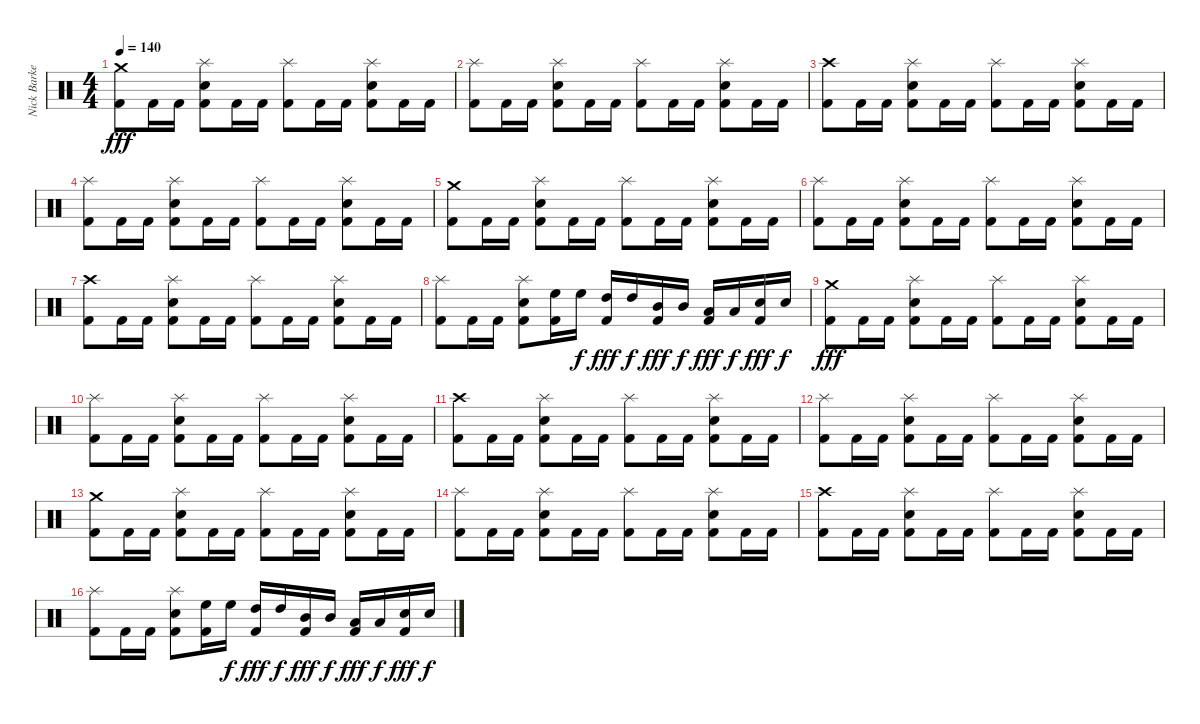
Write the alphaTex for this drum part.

\track ("Nick Barker - Drums - Percussion" "Nick Barke") {instrument percussion}
\staff {score}
\articulation defaults
\ts (4 4)
\tempo 140
\clef neutral
\ks c
("Kick (hit) 2" "Crash medium (hit)").8{dy fff} "Kick (hit) 2".16 "Kick (hit) 2".16 ("Kick (hit) 2" "Snare (hit) 2" "Splash (hit)").8 "Kick (hit) 2".16 "Kick (hit) 2".16 ("Kick (hit) 2" "Splash (hit)").8 "Kick (hit) 2".16 "Kick (hit) 2".16 ("Kick (hit) 2" "Snare (hit) 2" "Splash (hit)").8 "Kick (hit) 2".16 "Kick (hit) 2".16 |
("Kick (hit) 2" "Splash (hit)").8 "Kick (hit) 2".16 "Kick (hit) 2".16 ("Kick (hit) 2" "Snare (hit) 2" "Splash (hit)").8 "Kick (hit) 2".16 "Kick (hit) 2".16 ("Kick (hit) 2" "Splash (hit)").8 "Kick (hit) 2".16 "Kick (hit) 2".16 ("Kick (hit) 2" "Snare (hit) 2" "Splash (hit)").8 "Kick (hit) 2".16 "Kick (hit) 2".16 |
("Kick (hit) 2" "Crash high (hit)").8 "Kick (hit) 2".16 "Kick (hit) 2".16 ("Kick (hit) 2" "Snare (hit) 2" "Splash (hit)").8 "Kick (hit) 2".16 "Kick (hit) 2".16 ("Kick (hit) 2" "Splash (hit)").8 "Kick (hit) 2".16 "Kick (hit) 2".16 ("Kick (hit) 2" "Snare (hit) 2" "Splash (hit)").8 "Kick (hit) 2".16 "Kick (hit) 2".16 |
("Kick (hit) 2" "Splash (hit)").8 "Kick (hit) 2".16 "Kick (hit) 2".16 ("Kick (hit) 2" "Snare (hit) 2" "Splash (hit)").8 "Kick (hit) 2".16 "Kick (hit) 2".16 ("Kick (hit) 2" "Splash (hit)").8 "Kick (hit) 2".16 "Kick (hit) 2".16 ("Kick (hit) 2" "Snare (hit) 2" "Splash (hit)").8 "Kick (hit) 2".16 "Kick (hit) 2".16 |
("Kick (hit) 2" "Crash medium (hit)").8 "Kick (hit) 2".16 "Kick (hit) 2".16 ("Kick (hit) 2" "Snare (hit) 2" "Splash (hit)").8 "Kick (hit) 2".16 "Kick (hit) 2".16 ("Kick (hit) 2" "Splash (hit)").8 "Kick (hit) 2".16 "Kick (hit) 2".16 ("Kick (hit) 2" "Snare (hit) 2" "Splash (hit)").8 "Kick (hit) 2".16 "Kick (hit) 2".16 |
("Kick (hit) 2" "Splash (hit)").8 "Kick (hit) 2".16 "Kick (hit) 2".16 ("Kick (hit) 2" "Snare (hit) 2" "Splash (hit)").8 "Kick (hit) 2".16 "Kick (hit) 2".16 ("Kick (hit) 2" "Splash (hit)").8 "Kick (hit) 2".16 "Kick (hit) 2".16 ("Kick (hit) 2" "Snare (hit) 2" "Splash (hit)").8 "Kick (hit) 2".16 "Kick (hit) 2".16 |
("Kick (hit) 2" "Crash high (hit)").8 "Kick (hit) 2".16 "Kick (hit) 2".16 ("Kick (hit) 2" "Snare (hit) 2" "Splash (hit)").8 "Kick (hit) 2".16 "Kick (hit) 2".16 ("Kick (hit) 2" "Splash (hit)").8 "Kick (hit) 2".16 "Kick (hit) 2".16 ("Kick (hit) 2" "Snare (hit) 2" "Splash (hit)").8 "Kick (hit) 2".16 "Kick (hit) 2".16 |
("Kick (hit) 2" "Splash (hit)").8 "Kick (hit) 2".16 "Kick (hit) 2".16 ("Kick (hit) 2" "Snare (hit) 2" "Splash (hit)").8 ("Kick (hit) 2" "High Floor Tom (hit)").16 "High Floor Tom (hit)".16{dy f} ("Kick (hit) 2" "High Tom (hit)").16{dy fff} "High Tom (hit)".16{dy f} ("Kick (hit) 2" "Mid Tom (hit)").16{dy fff} "Mid Tom (hit)".16{dy f} ("Kick (hit) 2" "Low Tom (hit)").16{dy fff} "Low Tom (hit)".16{dy f} ("Kick (hit) 2" "Snare (hit) 2").16{dy fff} "Snare (hit) 2".16{dy f} |
("Kick (hit) 2" "Crash medium (hit)").8{dy fff} "Kick (hit) 2".16 "Kick (hit) 2".16 ("Kick (hit) 2" "Snare (hit) 2" "Splash (hit)").8 "Kick (hit) 2".16 "Kick (hit) 2".16 ("Kick (hit) 2" "Splash (hit)").8 "Kick (hit) 2".16 "Kick (hit) 2".16 ("Kick (hit) 2" "Snare (hit) 2" "Splash (hit)").8 "Kick (hit) 2".16 "Kick (hit) 2".16 |
("Kick (hit) 2" "Splash (hit)").8 "Kick (hit) 2".16 "Kick (hit) 2".16 ("Kick (hit) 2" "Snare (hit) 2" "Splash (hit)").8 "Kick (hit) 2".16 "Kick (hit) 2".16 ("Kick (hit) 2" "Splash (hit)").8 "Kick (hit) 2".16 "Kick (hit) 2".16 ("Kick (hit) 2" "Snare (hit) 2" "Splash (hit)").8 "Kick (hit) 2".16 "Kick (hit) 2".16 |
("Kick (hit) 2" "Crash high (hit)").8 "Kick (hit) 2".16 "Kick (hit) 2".16 ("Kick (hit) 2" "Snare (hit) 2" "Splash (hit)").8 "Kick (hit) 2".16 "Kick (hit) 2".16 ("Kick (hit) 2" "Splash (hit)").8 "Kick (hit) 2".16 "Kick (hit) 2".16 ("Kick (hit) 2" "Snare (hit) 2" "Splash (hit)").8 "Kick (hit) 2".16 "Kick (hit) 2".16 |
("Kick (hit) 2" "Splash (hit)").8 "Kick (hit) 2".16 "Kick (hit) 2".16 ("Kick (hit) 2" "Snare (hit) 2" "Splash (hit)").8 "Kick (hit) 2".16 "Kick (hit) 2".16 ("Kick (hit) 2" "Splash (hit)").8 "Kick (hit) 2".16 "Kick (hit) 2".16 ("Kick (hit) 2" "Snare (hit) 2" "Splash (hit)").8 "Kick (hit) 2".16 "Kick (hit) 2".16 |
("Kick (hit) 2" "Crash medium (hit)").8 "Kick (hit) 2".16 "Kick (hit) 2".16 ("Kick (hit) 2" "Snare (hit) 2" "Splash (hit)").8 "Kick (hit) 2".16 "Kick (hit) 2".16 ("Kick (hit) 2" "Splash (hit)").8 "Kick (hit) 2".16 "Kick (hit) 2".16 ("Kick (hit) 2" "Snare (hit) 2" "Splash (hit)").8 "Kick (hit) 2".16 "Kick (hit) 2".16 |
("Kick (hit) 2" "Splash (hit)").8 "Kick (hit) 2".16 "Kick (hit) 2".16 ("Kick (hit) 2" "Snare (hit) 2" "Splash (hit)").8 "Kick (hit) 2".16 "Kick (hit) 2".16 ("Kick (hit) 2" "Splash (hit)").8 "Kick (hit) 2".16 "Kick (hit) 2".16 ("Kick (hit) 2" "Snare (hit) 2" "Splash (hit)").8 "Kick (hit) 2".16 "Kick (hit) 2".16 |
("Kick (hit) 2" "Crash high (hit)").8 "Kick (hit) 2".16 "Kick (hit) 2".16 ("Kick (hit) 2" "Snare (hit) 2" "Splash (hit)").8 "Kick (hit) 2".16 "Kick (hit) 2".16 ("Kick (hit) 2" "Splash (hit)").8 "Kick (hit) 2".16 "Kick (hit) 2".16 ("Kick (hit) 2" "Snare (hit) 2" "Splash (hit)").8 "Kick (hit) 2".16 "Kick (hit) 2".16 |
("Kick (hit) 2" "Splash (hit)").8 "Kick (hit) 2".16 "Kick (hit) 2".16 ("Kick (hit) 2" "Snare (hit) 2" "Splash (hit)").8 ("Kick (hit) 2" "High Floor Tom (hit)").16 "High Floor Tom (hit)".16{dy f} ("Kick (hit) 2" "High Tom (hit)").16{dy fff} "High Tom (hit)".16{dy f} ("Kick (hit) 2" "Mid Tom (hit)").16{dy fff} "Mid Tom (hit)".16{dy f} ("Kick (hit) 2" "Low Tom (hit)").16{dy fff} "Low Tom (hit)".16{dy f} ("Kick (hit) 2" "Snare (hit) 2").16{dy fff} "Snare (hit) 2".16{dy f}
